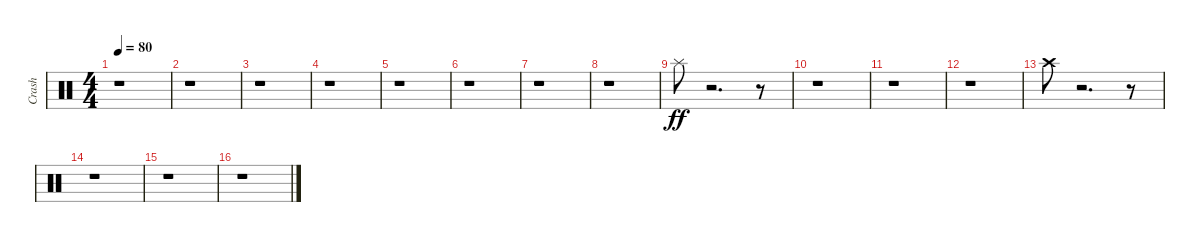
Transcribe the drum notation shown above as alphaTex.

\track ("Crash" "Crash") {instrument percussion}
\staff {score}
\articulation defaults
\ts (4 4)
\tempo 80
\clef neutral
\ks c
r.1{dy ff} |
r.1 |
r.1 |
r.1 |
r.1 |
r.1 |
r.1 |
r.1 |
"Splash (hit)".8 r.2{d} r.8 |
r.1 |
r.1 |
r.1 |
"Crash high (hit)".8 r.2{d} r.8 |
r.1 |
r.1 |
r.1
